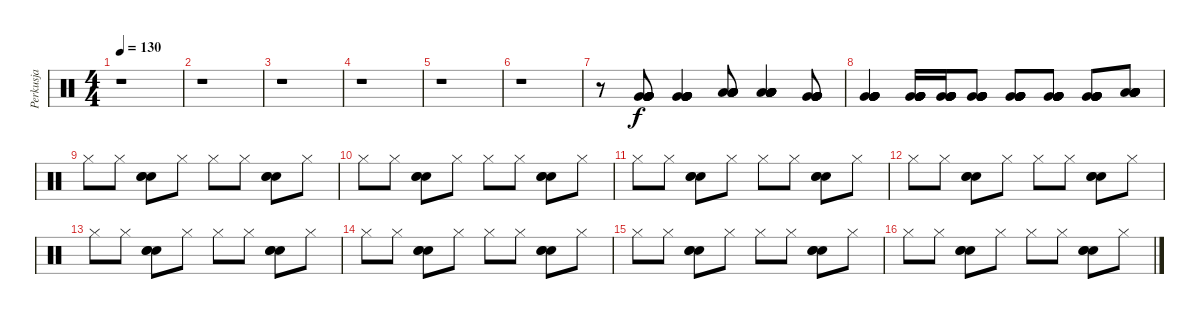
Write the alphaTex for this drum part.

\track ("Perkusja" "Perkusja") {instrument percussion}
\staff {score}
\articulation defaults
\ts (4 4)
\tempo 130
\clef neutral
\ks c
r.1{dy f} |
r.1 |
r.1 |
r.1 |
r.1 |
r.1 |
r.8 ("Very Low Tom (hit)" "Very Low Tom (hit)" "Very Low Tom (hit)" "Very Low Tom (hit)" "Very Low Tom (hit)" "Very Low Tom (hit)").8 ("Very Low Tom (hit)" "Very Low Tom (hit)" "Very Low Tom (hit)" "Very Low Tom (hit)" "Very Low Tom (hit)" "Very Low Tom (hit)").4 ("Low Floor Tom (hit)" "Low Floor Tom (hit)" "Low Floor Tom (hit)" "Low Floor Tom (hit)" "Low Floor Tom (hit)" "Low Floor Tom (hit)").8 ("Low Floor Tom (hit)" "Low Floor Tom (hit)" "Low Floor Tom (hit)" "Low Floor Tom (hit)" "Low Floor Tom (hit)" "Low Floor Tom (hit)").4 ("Very Low Tom (hit)" "Very Low Tom (hit)" "Very Low Tom (hit)" "Very Low Tom (hit)" "Very Low Tom (hit)" "Very Low Tom (hit)").8 |
("Very Low Tom (hit)" "Very Low Tom (hit)" "Very Low Tom (hit)" "Very Low Tom (hit)" "Very Low Tom (hit)" "Very Low Tom (hit)").4 ("Very Low Tom (hit)" "Very Low Tom (hit)" "Very Low Tom (hit)" "Very Low Tom (hit)" "Very Low Tom (hit)" "Very Low Tom (hit)").16 ("Very Low Tom (hit)" "Very Low Tom (hit)" "Very Low Tom (hit)" "Very Low Tom (hit)" "Very Low Tom (hit)" "Very Low Tom (hit)").16 ("Very Low Tom (hit)" "Very Low Tom (hit)" "Very Low Tom (hit)" "Very Low Tom (hit)" "Very Low Tom (hit)" "Very Low Tom (hit)").8 ("Very Low Tom (hit)" "Very Low Tom (hit)" "Very Low Tom (hit)" "Very Low Tom (hit)" "Very Low Tom (hit)" "Very Low Tom (hit)").8 ("Very Low Tom (hit)" "Very Low Tom (hit)" "Very Low Tom (hit)" "Very Low Tom (hit)" "Very Low Tom (hit)" "Very Low Tom (hit)").8 ("Very Low Tom (hit)" "Very Low Tom (hit)" "Very Low Tom (hit)" "Very Low Tom (hit)" "Very Low Tom (hit)" "Very Low Tom (hit)").8 ("Low Floor Tom (hit)" "Low Floor Tom (hit)" "Low Floor Tom (hit)" "Low Floor Tom (hit)" "Low Floor Tom (hit)" "Low Floor Tom (hit)").8 |
"Hi-Hat (closed)".8 "Hi-Hat (closed)".8 ("Electric Snare (hit)" "Electric Snare (hit)" "Electric Snare (hit)").8 "Hi-Hat (closed)".8 "Hi-Hat (closed)".8 "Hi-Hat (closed)".8 ("Electric Snare (hit)" "Electric Snare (hit)" "Electric Snare (hit)").8 "Hi-Hat (closed)".8 |
"Hi-Hat (closed)".8 "Hi-Hat (closed)".8 ("Electric Snare (hit)" "Electric Snare (hit)" "Electric Snare (hit)").8 "Hi-Hat (closed)".8 "Hi-Hat (closed)".8 "Hi-Hat (closed)".8 ("Electric Snare (hit)" "Electric Snare (hit)" "Electric Snare (hit)").8 "Hi-Hat (closed)".8 |
"Hi-Hat (closed)".8 "Hi-Hat (closed)".8 ("Electric Snare (hit)" "Electric Snare (hit)" "Electric Snare (hit)").8 "Hi-Hat (closed)".8 "Hi-Hat (closed)".8 "Hi-Hat (closed)".8 ("Electric Snare (hit)" "Electric Snare (hit)" "Electric Snare (hit)").8 "Hi-Hat (closed)".8 |
"Hi-Hat (closed)".8 "Hi-Hat (closed)".8 ("Electric Snare (hit)" "Electric Snare (hit)" "Electric Snare (hit)").8 "Hi-Hat (closed)".8 "Hi-Hat (closed)".8 "Hi-Hat (closed)".8 ("Electric Snare (hit)" "Electric Snare (hit)" "Electric Snare (hit)").8 "Hi-Hat (closed)".8 |
"Hi-Hat (closed)".8 "Hi-Hat (closed)".8 ("Electric Snare (hit)" "Electric Snare (hit)" "Electric Snare (hit)").8 "Hi-Hat (closed)".8 "Hi-Hat (closed)".8 "Hi-Hat (closed)".8 ("Electric Snare (hit)" "Electric Snare (hit)" "Electric Snare (hit)").8 "Hi-Hat (closed)".8 |
"Hi-Hat (closed)".8 "Hi-Hat (closed)".8 ("Electric Snare (hit)" "Electric Snare (hit)" "Electric Snare (hit)").8 "Hi-Hat (closed)".8 "Hi-Hat (closed)".8 "Hi-Hat (closed)".8 ("Electric Snare (hit)" "Electric Snare (hit)" "Electric Snare (hit)").8 "Hi-Hat (closed)".8 |
"Hi-Hat (closed)".8 "Hi-Hat (closed)".8 ("Electric Snare (hit)" "Electric Snare (hit)" "Electric Snare (hit)").8 "Hi-Hat (closed)".8 "Hi-Hat (closed)".8 "Hi-Hat (closed)".8 ("Electric Snare (hit)" "Electric Snare (hit)" "Electric Snare (hit)").8 "Hi-Hat (closed)".8 |
"Hi-Hat (closed)".8 "Hi-Hat (closed)".8 ("Electric Snare (hit)" "Electric Snare (hit)" "Electric Snare (hit)").8 "Hi-Hat (closed)".8 "Hi-Hat (closed)".8 "Hi-Hat (closed)".8 ("Electric Snare (hit)" "Electric Snare (hit)" "Electric Snare (hit)").8 "Hi-Hat (closed)".8
